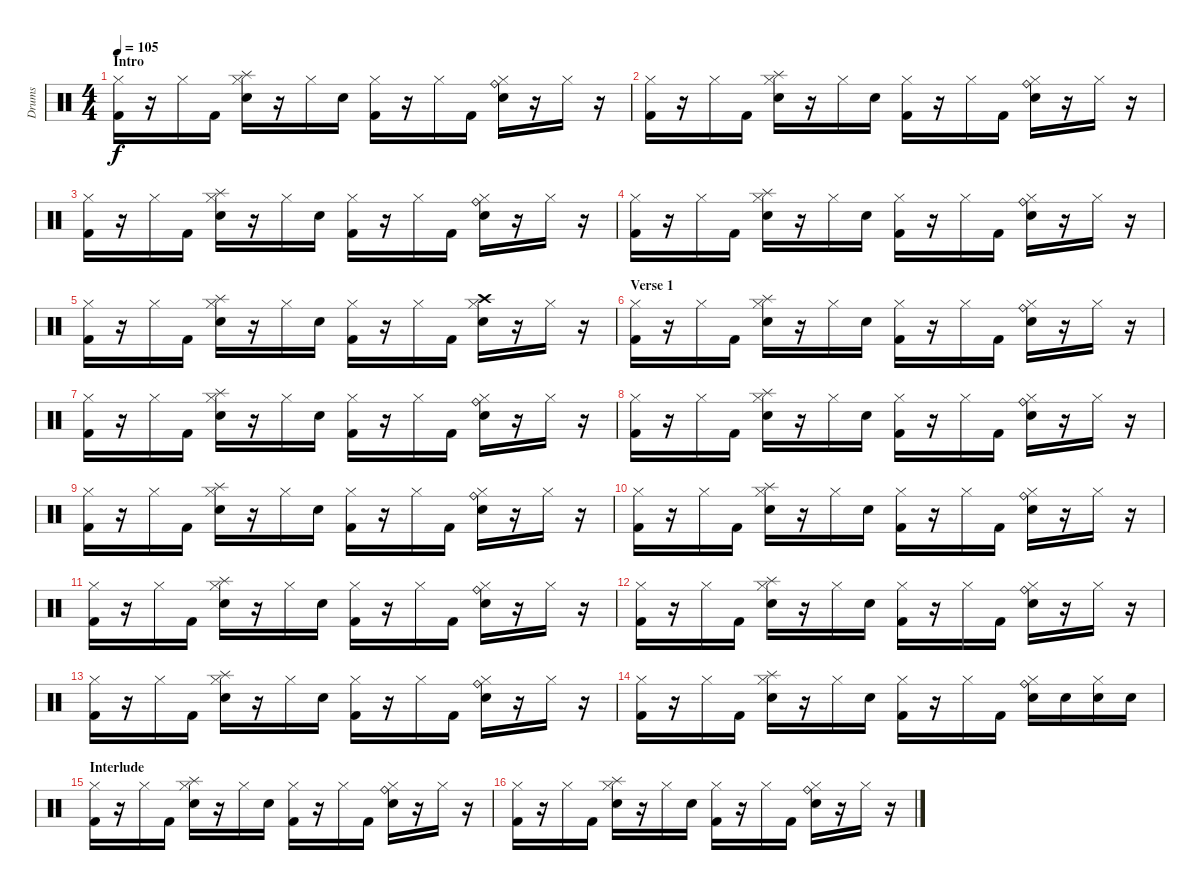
\track ("Drums" "Drums") {instrument percussion}
\staff {score}
\articulation defaults
\ts (4 4)
\section ("" "Intro")
\tempo 105
\clef neutral
\ks c
("Hi-Hat (closed)" "Kick (hit) 2").16{dy f} r.16 "Hi-Hat (closed)".16 "Kick (hit) 2".16 ("Hi-Hat (closed)" "Electric Snare (hit)" "Splash (hit)").16 r.16 "Hi-Hat (closed)".16 "Snare (hit) 2".16 ("Hi-Hat (closed)" "Kick (hit) 2").16 r.16 "Hi-Hat (closed)".16 "Kick (hit) 2".16 ("Hi-Hat (closed)" "Electric Snare (hit)" "Ride (bell)").16 r.16 "Hi-Hat (closed)".16 r.16 |
("Hi-Hat (closed)" "Kick (hit) 2").16 r.16 "Hi-Hat (closed)".16 "Kick (hit) 2".16 ("Hi-Hat (closed)" "Electric Snare (hit)" "Splash (hit)").16 r.16 "Hi-Hat (closed)".16 "Snare (hit) 2".16 ("Hi-Hat (closed)" "Kick (hit) 2").16 r.16 "Hi-Hat (closed)".16 "Kick (hit) 2".16 ("Hi-Hat (closed)" "Electric Snare (hit)" "Ride (bell)").16 r.16 "Hi-Hat (closed)".16 r.16 |
("Hi-Hat (closed)" "Kick (hit) 2").16 r.16 "Hi-Hat (closed)".16 "Kick (hit) 2".16 ("Hi-Hat (closed)" "Electric Snare (hit)" "Splash (hit)").16 r.16 "Hi-Hat (closed)".16 "Snare (hit) 2".16 ("Hi-Hat (closed)" "Kick (hit) 2").16 r.16 "Hi-Hat (closed)".16 "Kick (hit) 2".16 ("Hi-Hat (closed)" "Electric Snare (hit)" "Ride (bell)").16 r.16 "Hi-Hat (closed)".16 r.16 |
("Hi-Hat (closed)" "Kick (hit) 2").16 r.16 "Hi-Hat (closed)".16 "Kick (hit) 2".16 ("Hi-Hat (closed)" "Electric Snare (hit)" "Splash (hit)").16 r.16 "Hi-Hat (closed)".16 "Snare (hit) 2".16 ("Hi-Hat (closed)" "Kick (hit) 2").16 r.16 "Hi-Hat (closed)".16 "Kick (hit) 2".16 ("Hi-Hat (closed)" "Electric Snare (hit)" "Ride (bell)").16 r.16 "Hi-Hat (closed)".16 r.16 |
("Hi-Hat (closed)" "Kick (hit) 2").16 r.16 "Hi-Hat (closed)".16 "Kick (hit) 2".16 ("Hi-Hat (closed)" "Electric Snare (hit)" "Splash (hit)").16 r.16 "Hi-Hat (closed)".16 "Snare (hit) 2".16 ("Hi-Hat (closed)" "Kick (hit) 2").16 r.16 "Hi-Hat (closed)".16 "Kick (hit) 2".16 ("Hi-Hat (closed)" "Electric Snare (hit)" "Crash high (hit)").16 r.16 "Hi-Hat (closed)".16 r.16 |
\section ("" "Verse 1")
("Hi-Hat (closed)" "Kick (hit) 2").16 r.16 "Hi-Hat (closed)".16 "Kick (hit) 2".16 ("Hi-Hat (closed)" "Electric Snare (hit)" "Splash (hit)").16 r.16 "Hi-Hat (closed)".16 "Snare (hit) 2".16 ("Hi-Hat (closed)" "Kick (hit) 2").16 r.16 "Hi-Hat (closed)".16 "Kick (hit) 2".16 ("Hi-Hat (closed)" "Electric Snare (hit)" "Ride (bell)").16 r.16 "Hi-Hat (closed)".16 r.16 |
("Hi-Hat (closed)" "Kick (hit) 2").16 r.16 "Hi-Hat (closed)".16 "Kick (hit) 2".16 ("Hi-Hat (closed)" "Electric Snare (hit)" "Splash (hit)").16 r.16 "Hi-Hat (closed)".16 "Snare (hit) 2".16 ("Hi-Hat (closed)" "Kick (hit) 2").16 r.16 "Hi-Hat (closed)".16 "Kick (hit) 2".16 ("Hi-Hat (closed)" "Electric Snare (hit)" "Ride (bell)").16 r.16 "Hi-Hat (closed)".16 r.16 |
("Hi-Hat (closed)" "Kick (hit) 2").16 r.16 "Hi-Hat (closed)".16 "Kick (hit) 2".16 ("Hi-Hat (closed)" "Electric Snare (hit)" "Splash (hit)").16 r.16 "Hi-Hat (closed)".16 "Snare (hit) 2".16 ("Hi-Hat (closed)" "Kick (hit) 2").16 r.16 "Hi-Hat (closed)".16 "Kick (hit) 2".16 ("Hi-Hat (closed)" "Electric Snare (hit)" "Ride (bell)").16 r.16 "Hi-Hat (closed)".16 r.16 |
("Hi-Hat (closed)" "Kick (hit) 2").16 r.16 "Hi-Hat (closed)".16 "Kick (hit) 2".16 ("Hi-Hat (closed)" "Electric Snare (hit)" "Splash (hit)").16 r.16 "Hi-Hat (closed)".16 "Snare (hit) 2".16 ("Hi-Hat (closed)" "Kick (hit) 2").16 r.16 "Hi-Hat (closed)".16 "Kick (hit) 2".16 ("Hi-Hat (closed)" "Electric Snare (hit)" "Ride (bell)").16 r.16 "Hi-Hat (closed)".16 r.16 |
("Hi-Hat (closed)" "Kick (hit) 2").16 r.16 "Hi-Hat (closed)".16 "Kick (hit) 2".16 ("Hi-Hat (closed)" "Electric Snare (hit)" "Splash (hit)").16 r.16 "Hi-Hat (closed)".16 "Snare (hit) 2".16 ("Hi-Hat (closed)" "Kick (hit) 2").16 r.16 "Hi-Hat (closed)".16 "Kick (hit) 2".16 ("Hi-Hat (closed)" "Electric Snare (hit)" "Ride (bell)").16 r.16 "Hi-Hat (closed)".16 r.16 |
("Hi-Hat (closed)" "Kick (hit) 2").16 r.16 "Hi-Hat (closed)".16 "Kick (hit) 2".16 ("Hi-Hat (closed)" "Electric Snare (hit)" "Splash (hit)").16 r.16 "Hi-Hat (closed)".16 "Snare (hit) 2".16 ("Hi-Hat (closed)" "Kick (hit) 2").16 r.16 "Hi-Hat (closed)".16 "Kick (hit) 2".16 ("Hi-Hat (closed)" "Electric Snare (hit)" "Ride (bell)").16 r.16 "Hi-Hat (closed)".16 r.16 |
("Hi-Hat (closed)" "Kick (hit) 2").16 r.16 "Hi-Hat (closed)".16 "Kick (hit) 2".16 ("Hi-Hat (closed)" "Electric Snare (hit)" "Splash (hit)").16 r.16 "Hi-Hat (closed)".16 "Snare (hit) 2".16 ("Hi-Hat (closed)" "Kick (hit) 2").16 r.16 "Hi-Hat (closed)".16 "Kick (hit) 2".16 ("Hi-Hat (closed)" "Electric Snare (hit)" "Ride (bell)").16 r.16 "Hi-Hat (closed)".16 r.16 |
("Hi-Hat (closed)" "Kick (hit) 2").16 r.16 "Hi-Hat (closed)".16 "Kick (hit) 2".16 ("Hi-Hat (closed)" "Electric Snare (hit)" "Splash (hit)").16 r.16 "Hi-Hat (closed)".16 "Snare (hit) 2".16 ("Hi-Hat (closed)" "Kick (hit) 2").16 r.16 "Hi-Hat (closed)".16 "Kick (hit) 2".16 ("Hi-Hat (closed)" "Electric Snare (hit)" "Ride (bell)").16 r.16 "Hi-Hat (closed)".16 r.16 |
("Hi-Hat (closed)" "Kick (hit) 2").16 r.16 "Hi-Hat (closed)".16 "Kick (hit) 2".16 ("Hi-Hat (closed)" "Electric Snare (hit)" "Splash (hit)").16 r.16 "Hi-Hat (closed)".16 "Snare (hit) 2".16 ("Hi-Hat (closed)" "Kick (hit) 2").16 r.16 "Hi-Hat (closed)".16 "Kick (hit) 2".16 ("Hi-Hat (closed)" "Electric Snare (hit)" "Ride (bell)").16 "Electric Snare (hit)".16 ("Hi-Hat (closed)" "Electric Snare (hit)").16 "Electric Snare (hit)".16 |
\section ("" "Interlude")
("Hi-Hat (closed)" "Kick (hit) 2").16 r.16 "Hi-Hat (closed)".16 "Kick (hit) 2".16 ("Hi-Hat (closed)" "Electric Snare (hit)" "Splash (hit)").16 r.16 "Hi-Hat (closed)".16 "Snare (hit) 2".16 ("Hi-Hat (closed)" "Kick (hit) 2").16 r.16 "Hi-Hat (closed)".16 "Kick (hit) 2".16 ("Hi-Hat (closed)" "Electric Snare (hit)" "Ride (bell)").16 r.16 "Hi-Hat (closed)".16 r.16 |
("Hi-Hat (closed)" "Kick (hit) 2").16 r.16 "Hi-Hat (closed)".16 "Kick (hit) 2".16 ("Hi-Hat (closed)" "Electric Snare (hit)" "Splash (hit)").16 r.16 "Hi-Hat (closed)".16 "Snare (hit) 2".16 ("Hi-Hat (closed)" "Kick (hit) 2").16 r.16 "Hi-Hat (closed)".16 "Kick (hit) 2".16 ("Hi-Hat (closed)" "Electric Snare (hit)" "Ride (bell)").16 r.16 "Hi-Hat (closed)".16 r.16
